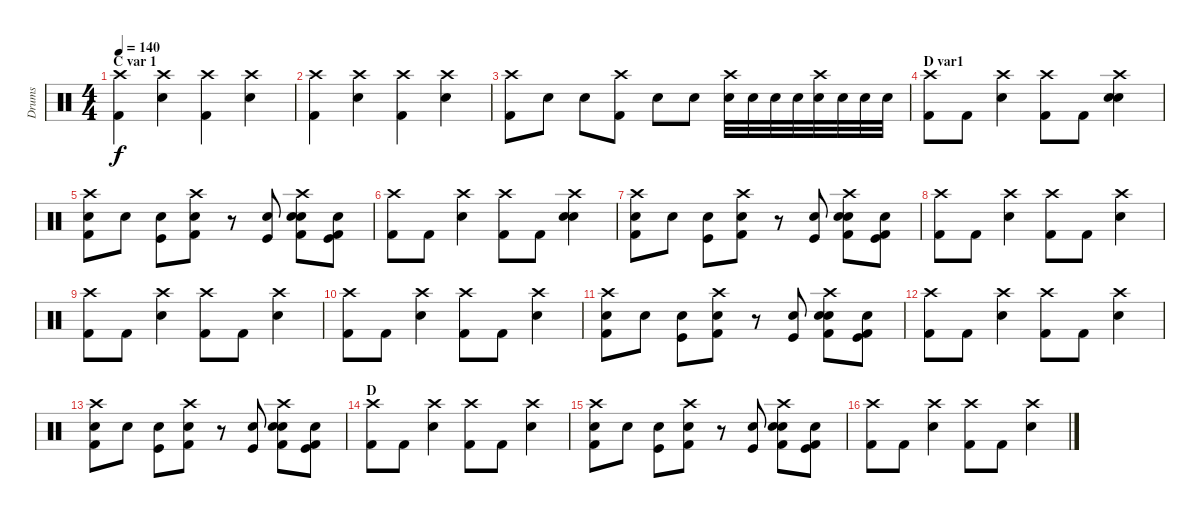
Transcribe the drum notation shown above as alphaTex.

\track ("Drums" "Drums") {instrument percussion}
\staff {score}
\articulation defaults
\ts (4 4)
\section ("" "C var 1")
\tempo 140
\clef neutral
\ks c
("Crash high (hit)" "Kick (hit) 2").4{dy f} ("Crash high (hit)" "Electric Snare (hit)").4 ("Crash high (hit)" "Kick (hit) 2").4 ("Crash high (hit)" "Electric Snare (hit)").4 |
("Crash high (hit)" "Kick (hit) 2").4 ("Crash high (hit)" "Electric Snare (hit)").4 ("Crash high (hit)" "Kick (hit) 2").4 ("Crash high (hit)" "Electric Snare (hit)").4 |
("Crash high (hit)" "Kick (hit) 2").8 "Electric Snare (hit)".8 "Electric Snare (hit)".8 ("Crash high (hit)" "Kick (hit) 2").8 "Electric Snare (hit)".8 "Electric Snare (hit)".8 ("Crash high (hit)" "Electric Snare (hit)").32 "Electric Snare (hit)".32 "Electric Snare (hit)".32 "Electric Snare (hit)".32 ("Crash high (hit)" "Electric Snare (hit)").32 "Electric Snare (hit)".32 "Electric Snare (hit)".32 "Electric Snare (hit)".32 |
\section ("" "D var1")
("Crash high (hit)" "Kick (hit) 2").8 "Kick (hit) 2".8 ("Crash high (hit)" "Electric Snare (hit)").4 ("Crash high (hit)" "Kick (hit) 2").8 "Kick (hit) 2".8 ("Crash high (hit)"{x} "Snare (hit)"{x} "Electric Snare (hit)"{x}).4 |
("Crash high (hit)" "Electric Snare (hit)" "Kick (hit) 2").8 "Electric Snare (hit)".8 ("Kick (hit)" "Electric Snare (hit)").8 ("Crash high (hit)" "Electric Snare (hit)" "Kick (hit) 2").8 r.8 ("Kick (hit)" "Electric Snare (hit)").8 ("Crash high (hit)" "Electric Snare (hit)" "Snare (hit) 2" "Kick (hit) 2").8 ("Electric Snare (hit)" "Kick (hit)" "Kick (hit) 2").8 |
("Crash high (hit)" "Kick (hit) 2").8 "Kick (hit) 2".8 ("Crash high (hit)" "Electric Snare (hit)").4 ("Crash high (hit)" "Kick (hit) 2").8 "Kick (hit) 2".8 ("Crash high (hit)"{x} "Snare (hit)"{x} "Electric Snare (hit)"{x}).4 |
("Crash high (hit)" "Electric Snare (hit)" "Kick (hit) 2").8 "Electric Snare (hit)".8 ("Kick (hit)" "Electric Snare (hit)").8 ("Crash high (hit)" "Electric Snare (hit)" "Kick (hit) 2").8 r.8 ("Kick (hit)" "Electric Snare (hit)").8 ("Crash high (hit)" "Electric Snare (hit)" "Snare (hit) 2" "Kick (hit) 2").8 ("Electric Snare (hit)" "Kick (hit)" "Kick (hit) 2").8 |
("Crash high (hit)" "Kick (hit) 2").8 "Kick (hit) 2".8 ("Crash high (hit)" "Electric Snare (hit)").4 ("Crash high (hit)" "Kick (hit) 2").8 "Kick (hit) 2".8 ("Crash high (hit)" "Electric Snare (hit)").4 |
("Crash high (hit)" "Kick (hit) 2").8 "Kick (hit) 2".8 ("Crash high (hit)" "Electric Snare (hit)").4 ("Crash high (hit)" "Kick (hit) 2").8 "Kick (hit) 2".8 ("Crash high (hit)" "Electric Snare (hit)").4 |
("Crash high (hit)" "Kick (hit) 2").8 "Kick (hit) 2".8 ("Crash high (hit)" "Electric Snare (hit)").4 ("Crash high (hit)" "Kick (hit) 2").8 "Kick (hit) 2".8 ("Crash high (hit)" "Electric Snare (hit)").4 |
("Crash high (hit)" "Electric Snare (hit)" "Kick (hit) 2").8 "Electric Snare (hit)".8 ("Kick (hit)" "Electric Snare (hit)").8 ("Crash high (hit)" "Electric Snare (hit)" "Kick (hit) 2").8 r.8 ("Kick (hit)" "Electric Snare (hit)").8 ("Crash high (hit)" "Electric Snare (hit)" "Snare (hit) 2" "Kick (hit) 2").8 ("Electric Snare (hit)" "Kick (hit)" "Kick (hit) 2").8 |
("Crash high (hit)" "Kick (hit) 2").8 "Kick (hit) 2".8 ("Crash high (hit)" "Electric Snare (hit)").4 ("Crash high (hit)" "Kick (hit) 2").8 "Kick (hit) 2".8 ("Crash high (hit)" "Electric Snare (hit)").4 |
("Crash high (hit)" "Electric Snare (hit)" "Kick (hit) 2").8 "Electric Snare (hit)".8 ("Kick (hit)" "Electric Snare (hit)").8 ("Crash high (hit)" "Electric Snare (hit)" "Kick (hit) 2").8 r.8 ("Kick (hit)" "Electric Snare (hit)").8 ("Crash high (hit)" "Electric Snare (hit)" "Snare (hit) 2" "Kick (hit) 2").8 ("Electric Snare (hit)" "Kick (hit)" "Kick (hit) 2").8 |
\section ("" "D")
("Crash high (hit)" "Kick (hit) 2").8 "Kick (hit) 2".8 ("Crash high (hit)" "Electric Snare (hit)").4 ("Crash high (hit)" "Kick (hit) 2").8 "Kick (hit) 2".8 ("Crash high (hit)" "Electric Snare (hit)").4 |
("Crash high (hit)" "Electric Snare (hit)" "Kick (hit) 2").8 "Electric Snare (hit)".8 ("Kick (hit)" "Electric Snare (hit)").8 ("Crash high (hit)" "Electric Snare (hit)" "Kick (hit) 2").8 r.8 ("Kick (hit)" "Electric Snare (hit)").8 ("Crash high (hit)" "Electric Snare (hit)" "Snare (hit) 2" "Kick (hit) 2").8 ("Electric Snare (hit)" "Kick (hit)" "Kick (hit) 2").8 |
("Crash high (hit)" "Kick (hit) 2").8 "Kick (hit) 2".8 ("Crash high (hit)" "Electric Snare (hit)").4 ("Crash high (hit)" "Kick (hit) 2").8 "Kick (hit) 2".8 ("Crash high (hit)" "Electric Snare (hit)").4
